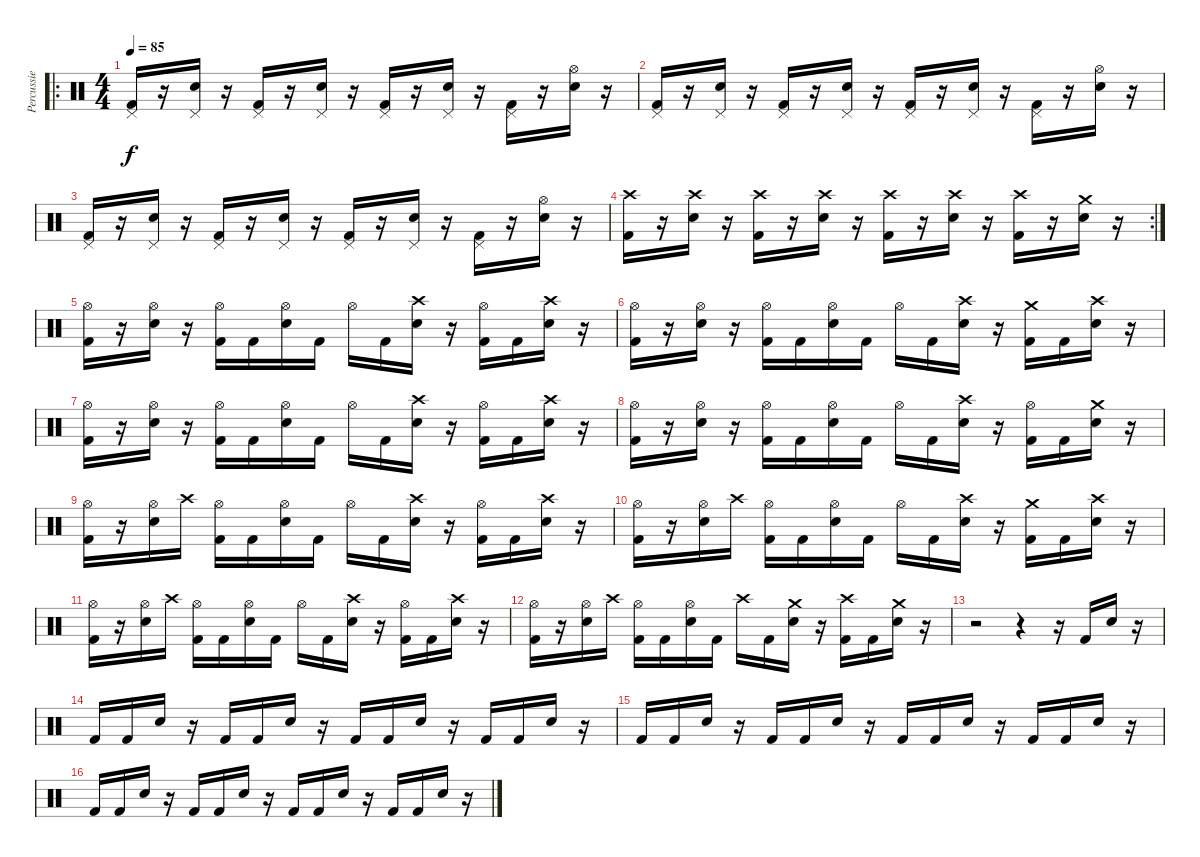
\track ("Percussie" "Percussie") {instrument percussion}
\staff {score}
\articulation defaults
\ro
\ts (4 4)
\tempo 85
\clef neutral
\ks c
("Kick (hit) 2" "Pedal Hi-Hat (hit)").16{dy f} r.16 ("Snare (hit) 2" "Pedal Hi-Hat (hit)").16 r.16 ("Kick (hit) 2" "Pedal Hi-Hat (hit)").16 r.16 ("Snare (hit) 2" "Pedal Hi-Hat (hit)").16 r.16 ("Kick (hit) 2" "Pedal Hi-Hat (hit)").16 r.16 ("Snare (hit) 2" "Pedal Hi-Hat (hit)").16 r.16 ("Kick (hit) 2" "Pedal Hi-Hat (hit)").16 r.16 ("Snare (hit) 2" "Hi-Hat (open)").16 r.16 |
("Kick (hit) 2" "Pedal Hi-Hat (hit)").16 r.16 ("Snare (hit) 2" "Pedal Hi-Hat (hit)").16 r.16 ("Kick (hit) 2" "Pedal Hi-Hat (hit)").16 r.16 ("Snare (hit) 2" "Pedal Hi-Hat (hit)").16 r.16 ("Kick (hit) 2" "Pedal Hi-Hat (hit)").16 r.16 ("Snare (hit) 2" "Pedal Hi-Hat (hit)").16 r.16 ("Kick (hit) 2" "Pedal Hi-Hat (hit)").16 r.16 ("Snare (hit) 2" "Hi-Hat (open)").16 r.16 |
("Kick (hit) 2" "Pedal Hi-Hat (hit)").16 r.16 ("Snare (hit) 2" "Pedal Hi-Hat (hit)").16 r.16 ("Kick (hit) 2" "Pedal Hi-Hat (hit)").16 r.16 ("Snare (hit) 2" "Pedal Hi-Hat (hit)").16 r.16 ("Kick (hit) 2" "Pedal Hi-Hat (hit)").16 r.16 ("Snare (hit) 2" "Pedal Hi-Hat (hit)").16 r.16 ("Kick (hit) 2" "Pedal Hi-Hat (hit)").16 r.16 ("Snare (hit) 2" "Hi-Hat (open)").16 r.16 |
\rc 2
("Kick (hit) 2" "Crash high (hit)").16 r.16 ("Snare (hit) 2" "Crash high (hit)").16 r.16 ("Kick (hit) 2" "Crash high (hit)").16 r.16 ("Snare (hit) 2" "Crash high (hit)").16 r.16 ("Kick (hit) 2" "Crash high (hit)").16 r.16 ("Snare (hit) 2" "Crash high (hit)").16 r.16 ("Kick (hit) 2" "Crash high (hit)").16 r.16 ("Snare (hit) 2" "Crash medium (hit)").16 r.16 |
("Kick (hit) 2" "Hi-Hat (open)").16 r.16 ("Snare (hit) 2" "Hi-Hat (open)").16 r.16 ("Kick (hit) 2" "Hi-Hat (open)").16 "Kick (hit) 2".16 ("Snare (hit) 2" "Hi-Hat (open)").16 "Kick (hit) 2".16 "Hi-Hat (open)".16 "Kick (hit) 2".16 ("Snare (hit) 2" "Crash high (hit)").16 r.16 ("Kick (hit) 2" "Hi-Hat (open)").16 "Kick (hit) 2".16 ("Snare (hit) 2" "Crash high (hit)").16 r.16 |
("Kick (hit) 2" "Hi-Hat (open)").16 r.16 ("Snare (hit) 2" "Hi-Hat (open)").16 r.16 ("Kick (hit) 2" "Hi-Hat (open)").16 "Kick (hit) 2".16 ("Snare (hit) 2" "Hi-Hat (open)").16 "Kick (hit) 2".16 "Hi-Hat (open)".16 "Kick (hit) 2".16 ("Snare (hit) 2" "Crash high (hit)").16 r.16 ("Kick (hit) 2" "Crash medium (hit)").16 "Kick (hit) 2".16 ("Snare (hit) 2" "Crash high (hit)").16 r.16 |
("Kick (hit) 2" "Hi-Hat (open)").16 r.16 ("Snare (hit) 2" "Hi-Hat (open)").16 r.16 ("Kick (hit) 2" "Hi-Hat (open)").16 "Kick (hit) 2".16 ("Snare (hit) 2" "Hi-Hat (open)").16 "Kick (hit) 2".16 "Hi-Hat (open)".16 "Kick (hit) 2".16 ("Snare (hit) 2" "Crash high (hit)").16 r.16 ("Kick (hit) 2" "Hi-Hat (open)").16 "Kick (hit) 2".16 ("Snare (hit) 2" "Crash high (hit)").16 r.16 |
("Kick (hit) 2" "Hi-Hat (open)").16 r.16 ("Snare (hit) 2" "Hi-Hat (open)").16 r.16 ("Kick (hit) 2" "Hi-Hat (open)").16 "Kick (hit) 2".16 ("Snare (hit) 2" "Hi-Hat (open)").16 "Kick (hit) 2".16 "Hi-Hat (open)".16 "Kick (hit) 2".16 ("Snare (hit) 2" "Crash high (hit)").16 r.16 ("Kick (hit) 2" "Hi-Hat (open)").16 "Kick (hit) 2".16 ("Snare (hit) 2" "Crash medium (hit)").16 r.16 |
("Kick (hit) 2" "Hi-Hat (open)").16 r.16 ("Snare (hit) 2" "Hi-Hat (open)").16 "Crash high (hit)".16 ("Kick (hit) 2" "Hi-Hat (open)").16 "Kick (hit) 2".16 ("Snare (hit) 2" "Hi-Hat (open)").16 "Kick (hit) 2".16 "Hi-Hat (open)".16 "Kick (hit) 2".16 ("Snare (hit) 2" "Crash high (hit)").16 r.16 ("Kick (hit) 2" "Hi-Hat (open)").16 "Kick (hit) 2".16 ("Snare (hit) 2" "Crash high (hit)").16 r.16 |
("Kick (hit) 2" "Hi-Hat (open)").16 r.16 ("Snare (hit) 2" "Hi-Hat (open)").16 "Crash high (hit)".16 ("Kick (hit) 2" "Hi-Hat (open)").16 "Kick (hit) 2".16 ("Snare (hit) 2" "Hi-Hat (open)").16 "Kick (hit) 2".16 "Hi-Hat (open)".16 "Kick (hit) 2".16 ("Snare (hit) 2" "Crash high (hit)").16 r.16 ("Kick (hit) 2" "Crash medium (hit)").16 "Kick (hit) 2".16 ("Snare (hit) 2" "Crash high (hit)").16 r.16 |
("Kick (hit) 2" "Hi-Hat (open)").16 r.16 ("Snare (hit) 2" "Hi-Hat (open)").16 "Crash high (hit)".16 ("Kick (hit) 2" "Hi-Hat (open)").16 "Kick (hit) 2".16 ("Snare (hit) 2" "Hi-Hat (open)").16 "Kick (hit) 2".16 "Hi-Hat (open)".16 "Kick (hit) 2".16 ("Snare (hit) 2" "Crash high (hit)").16 r.16 ("Kick (hit) 2" "Hi-Hat (open)").16 "Kick (hit) 2".16 ("Snare (hit) 2" "Crash high (hit)").16 r.16 |
("Kick (hit) 2" "Hi-Hat (open)").16 r.16 ("Snare (hit) 2" "Hi-Hat (open)").16 "Crash high (hit)".16 ("Kick (hit) 2" "Hi-Hat (open)").16 "Kick (hit) 2".16 ("Snare (hit) 2" "Hi-Hat (open)").16 "Kick (hit) 2".16 "Crash high (hit)".16 "Kick (hit) 2".16 ("Snare (hit) 2" "Crash medium (hit)").16 r.16 ("Kick (hit) 2" "Crash high (hit)").16 "Kick (hit) 2".16 ("Snare (hit) 2" "Crash medium (hit)").16 r.16 |
r.2 r.4 r.16 "Kick (hit) 2".16 "Snare (hit) 2".16 r.16 |
"Kick (hit) 2".16 "Kick (hit) 2".16 "Snare (hit) 2".16 r.16 "Kick (hit) 2".16 "Kick (hit) 2".16 "Snare (hit) 2".16 r.16 "Kick (hit) 2".16 "Kick (hit) 2".16 "Snare (hit) 2".16 r.16 "Kick (hit) 2".16 "Kick (hit) 2".16 "Snare (hit) 2".16 r.16 |
"Kick (hit) 2".16 "Kick (hit) 2".16 "Snare (hit) 2".16 r.16 "Kick (hit) 2".16 "Kick (hit) 2".16 "Snare (hit) 2".16 r.16 "Kick (hit) 2".16 "Kick (hit) 2".16 "Snare (hit) 2".16 r.16 "Kick (hit) 2".16 "Kick (hit) 2".16 "Snare (hit) 2".16 r.16 |
"Kick (hit) 2".16 "Kick (hit) 2".16 "Snare (hit) 2".16 r.16 "Kick (hit) 2".16 "Kick (hit) 2".16 "Snare (hit) 2".16 r.16 "Kick (hit) 2".16 "Kick (hit) 2".16 "Snare (hit) 2".16 r.16 "Kick (hit) 2".16 "Kick (hit) 2".16 "Snare (hit) 2".16 r.16
